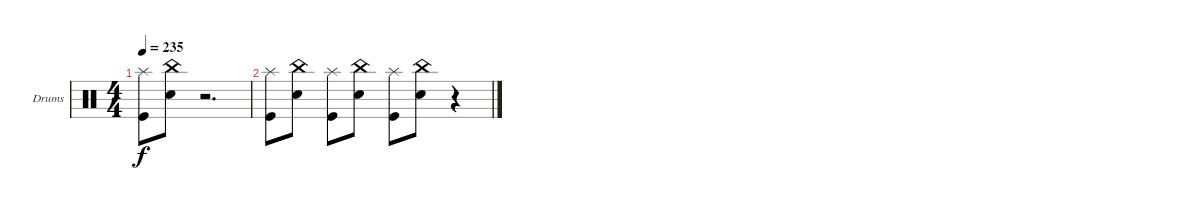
\defaultSystemsLayout 4
\bracketExtendMode groupsimilarinstruments
\firstSystemTrackNameOrientation horizontal
\otherSystemsTrackNameOrientation horizontal
\track ("Drumkit" "Drums") {instrument percussion}
\staff {score}
\articulation defaults
\ts (4 4)
\tempo 235
\clef neutral
\ks c
("Kick (hit)" "Splash (hit)").8{dy f} ("Snare (hit) 2" "China (hit)").8 r.2{d} |
("Kick (hit)" "Splash (hit)").8 ("Snare (hit) 2" "China (hit)").8 ("Kick (hit)" "Splash (hit)").8 ("Snare (hit) 2" "China (hit)").8 ("Kick (hit)" "Splash (hit)").8 ("Snare (hit) 2" "China (hit)").8 r.4
